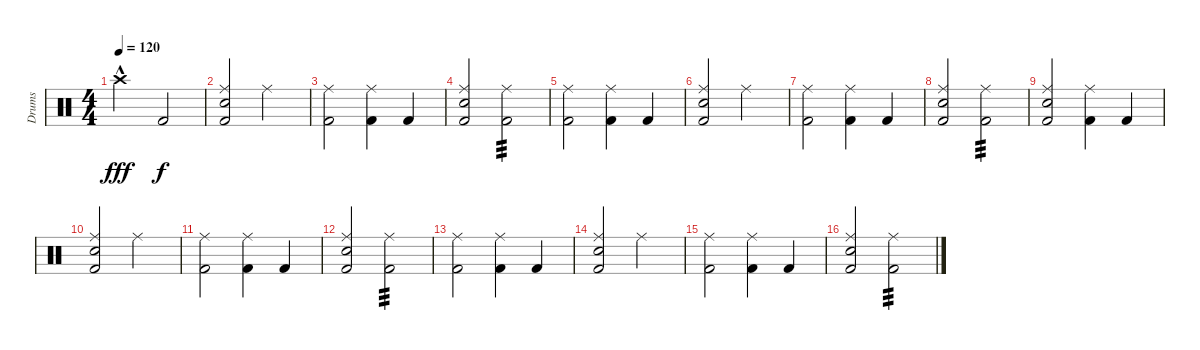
\track ("Drums" "Drums") {instrument percussion}
\staff {score}
\articulation defaults
\ts (4 4)
\tempo 120
\clef neutral
\ks c "Crash high (hit)"{hac}.2{dy fff} "Kick (hit) 2".2{dy f}
|
("Ride (middle)" "Snare (hit) 2" "Kick (hit) 2").2 "Ride (middle)".2 |
("Ride (middle)" "Kick (hit) 2").2 ("Ride (middle)" "Kick (hit) 2").4 "Kick (hit) 2".4 |
("Ride (middle)" "Snare (hit) 2" "Kick (hit) 2").2 ("Ride (middle)" "Kick (hit) 2").2{tp 3} |
("Ride (middle)" "Kick (hit) 2").2 ("Ride (middle)" "Kick (hit) 2").4 "Kick (hit) 2".4 |
("Ride (middle)" "Snare (hit) 2" "Kick (hit) 2").2 "Ride (middle)".2 |
("Ride (middle)" "Kick (hit) 2").2 ("Ride (middle)" "Kick (hit) 2").4 "Kick (hit) 2".4 |
("Ride (middle)" "Snare (hit) 2" "Kick (hit) 2").2 ("Ride (middle)" "Kick (hit) 2").2{tp 3} |
("Ride (middle)" "Snare (hit) 2" "Kick (hit) 2").2 ("Ride (middle)" "Kick (hit) 2").4 "Kick (hit) 2".4 |
("Ride (middle)" "Snare (hit) 2" "Kick (hit) 2").2 "Ride (middle)".2 |
("Ride (middle)" "Kick (hit) 2").2 ("Ride (middle)" "Kick (hit) 2").4 "Kick (hit) 2".4 |
("Ride (middle)" "Snare (hit) 2" "Kick (hit) 2").2 ("Ride (middle)" "Kick (hit) 2").2{tp 3} |
("Ride (middle)" "Kick (hit) 2").2 ("Ride (middle)" "Kick (hit) 2").4 "Kick (hit) 2".4 |
("Ride (middle)" "Snare (hit) 2" "Kick (hit) 2").2 "Ride (middle)".2 |
("Ride (middle)" "Kick (hit) 2").2 ("Ride (middle)" "Kick (hit) 2").4 "Kick (hit) 2".4 |
("Ride (middle)" "Snare (hit) 2" "Kick (hit) 2").2 ("Ride (middle)" "Kick (hit) 2").2{tp 3}
